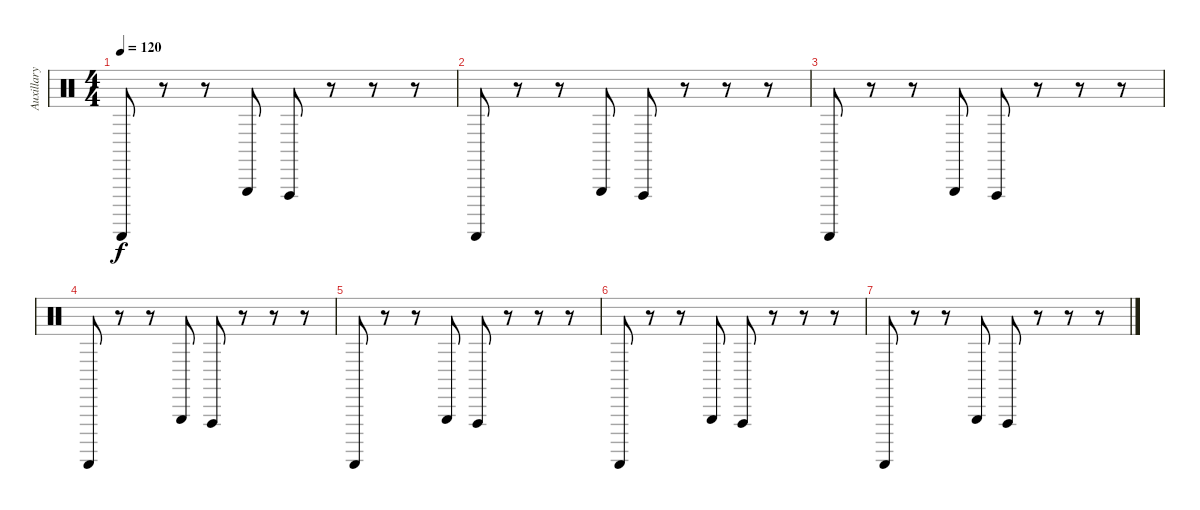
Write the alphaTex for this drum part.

\track ("Auxillary 2" "Auxillary ") {instrument percussion}
\staff {score}
\articulation defaults
\ts (4 4)
\tempo 120
\clef neutral
\ks c "Guiro (scrap-return)".8{dy f}
r.8 r.8 "Triangle (hit)".8 "Vibraslap (hit)".8 r.8 r.8 r.8 |
"Guiro (scrap-return)".8 r.8 r.8 "Triangle (hit)".8 "Vibraslap (hit)".8 r.8 r.8 r.8 |
"Guiro (scrap-return)".8 r.8 r.8 "Triangle (hit)".8 "Vibraslap (hit)".8 r.8 r.8 r.8 |
"Guiro (scrap-return)".8 r.8 r.8 "Triangle (hit)".8 "Vibraslap (hit)".8 r.8 r.8 r.8 |
"Guiro (scrap-return)".8 r.8 r.8 "Triangle (hit)".8 "Vibraslap (hit)".8 r.8 r.8 r.8 |
"Guiro (scrap-return)".8 r.8 r.8 "Triangle (hit)".8 "Vibraslap (hit)".8 r.8 r.8 r.8 |
"Guiro (scrap-return)".8 r.8 r.8 "Triangle (hit)".8 "Vibraslap (hit)".8 r.8 r.8 r.8
